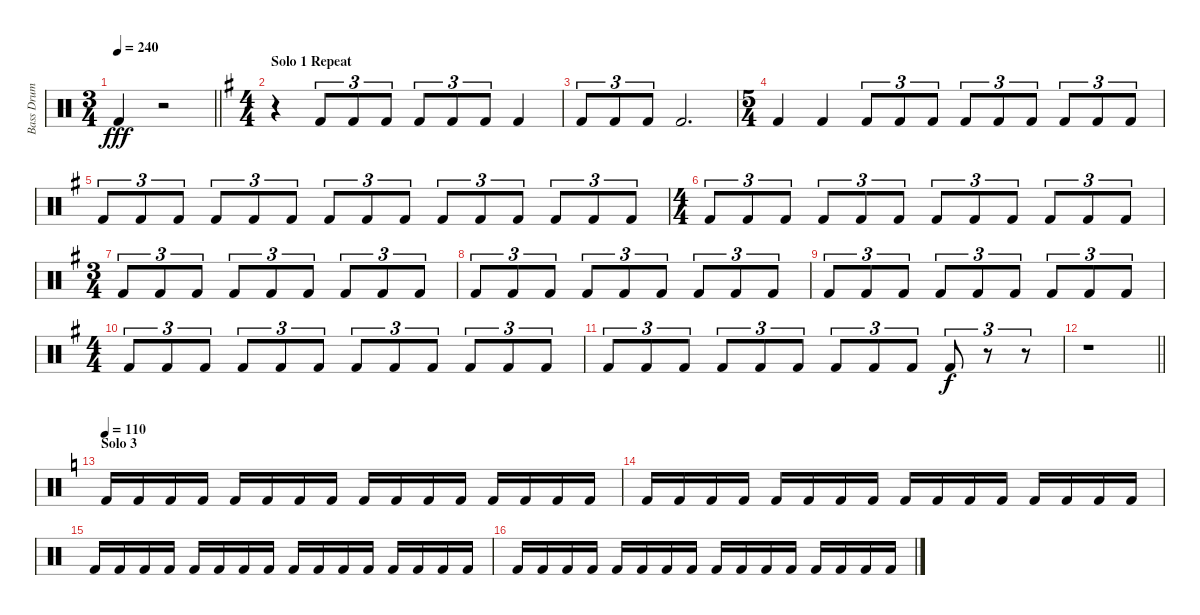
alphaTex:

\track ("Bass Drum" "Bass Drum") {instrument percussion}
\staff {score}
\articulation defaults
\ts (3 4)
\tempo 240
\clef neutral
\barLineRight lightlight
\ks c "Kick (hit) 2".4{dy fff}
r.2 |
\ts (4 4)
\section ("" "Solo 1 Repeat")
\ks g
r.4{volume 16} "Kick (hit) 2".8{tu (3 2)} "Kick (hit) 2".8{tu (3 2)} "Kick (hit) 2".8{tu (3 2)} "Kick (hit) 2".8{tu (3 2)} "Kick (hit) 2".8{tu (3 2)} "Kick (hit) 2".8{tu (3 2)} "Kick (hit) 2".4 |
"Kick (hit) 2".8{tu (3 2)} "Kick (hit) 2".8{tu (3 2)} "Kick (hit) 2".8{tu (3 2)} "Kick (hit) 2".2{d} |
\ts (5 4)
"Kick (hit) 2".4 "Kick (hit) 2".4 "Kick (hit) 2".8{tu (3 2)} "Kick (hit) 2".8{tu (3 2)} "Kick (hit) 2".8{tu (3 2)} "Kick (hit) 2".8{tu (3 2)} "Kick (hit) 2".8{tu (3 2)} "Kick (hit) 2".8{tu (3 2)} "Kick (hit) 2".8{tu (3 2)} "Kick (hit) 2".8{tu (3 2)} "Kick (hit) 2".8{tu (3 2)} |
"Kick (hit) 2".8{tu (3 2)} "Kick (hit) 2".8{tu (3 2)} "Kick (hit) 2".8{tu (3 2)} "Kick (hit) 2".8{tu (3 2)} "Kick (hit) 2".8{tu (3 2)} "Kick (hit) 2".8{tu (3 2)} "Kick (hit) 2".8{tu (3 2)} "Kick (hit) 2".8{tu (3 2)} "Kick (hit) 2".8{tu (3 2)} "Kick (hit) 2".8{tu (3 2)} "Kick (hit) 2".8{tu (3 2)} "Kick (hit) 2".8{tu (3 2)} "Kick (hit) 2".8{tu (3 2)} "Kick (hit) 2".8{tu (3 2)} "Kick (hit) 2".8{tu (3 2)} |
\ts (4 4)
"Kick (hit) 2".8{tu (3 2)} "Kick (hit) 2".8{tu (3 2)} "Kick (hit) 2".8{tu (3 2)} "Kick (hit) 2".8{tu (3 2)} "Kick (hit) 2".8{tu (3 2)} "Kick (hit) 2".8{tu (3 2)} "Kick (hit) 2".8{tu (3 2)} "Kick (hit) 2".8{tu (3 2)} "Kick (hit) 2".8{tu (3 2)} "Kick (hit) 2".8{tu (3 2)} "Kick (hit) 2".8{tu (3 2)} "Kick (hit) 2".8{tu (3 2)} |
\ts (3 4)
"Kick (hit) 2".8{tu (3 2)} "Kick (hit) 2".8{tu (3 2)} "Kick (hit) 2".8{tu (3 2)} "Kick (hit) 2".8{tu (3 2)} "Kick (hit) 2".8{tu (3 2)} "Kick (hit) 2".8{tu (3 2)} "Kick (hit) 2".8{tu (3 2)} "Kick (hit) 2".8{tu (3 2)} "Kick (hit) 2".8{tu (3 2)} |
"Kick (hit) 2".8{tu (3 2)} "Kick (hit) 2".8{tu (3 2)} "Kick (hit) 2".8{tu (3 2)} "Kick (hit) 2".8{tu (3 2)} "Kick (hit) 2".8{tu (3 2)} "Kick (hit) 2".8{tu (3 2)} "Kick (hit) 2".8{tu (3 2)} "Kick (hit) 2".8{tu (3 2)} "Kick (hit) 2".8{tu (3 2)} |
"Kick (hit) 2".8{tu (3 2)} "Kick (hit) 2".8{tu (3 2)} "Kick (hit) 2".8{tu (3 2)} "Kick (hit) 2".8{tu (3 2)} "Kick (hit) 2".8{tu (3 2)} "Kick (hit) 2".8{tu (3 2)} "Kick (hit) 2".8{tu (3 2)} "Kick (hit) 2".8{tu (3 2)} "Kick (hit) 2".8{tu (3 2)} |
\ts (4 4)
"Kick (hit) 2".8{tu (3 2)} "Kick (hit) 2".8{tu (3 2)} "Kick (hit) 2".8{tu (3 2)} "Kick (hit) 2".8{tu (3 2)} "Kick (hit) 2".8{tu (3 2)} "Kick (hit) 2".8{tu (3 2)} "Kick (hit) 2".8{tu (3 2)} "Kick (hit) 2".8{tu (3 2)} "Kick (hit) 2".8{tu (3 2)} "Kick (hit) 2".8{tu (3 2)} "Kick (hit) 2".8{tu (3 2)} "Kick (hit) 2".8{tu (3 2)} |
"Kick (hit) 2".8{tu (3 2)} "Kick (hit) 2".8{tu (3 2)} "Kick (hit) 2".8{tu (3 2)} "Kick (hit) 2".8{tu (3 2)} "Kick (hit) 2".8{tu (3 2)} "Kick (hit) 2".8{tu (3 2)} "Kick (hit) 2".8{tu (3 2)} "Kick (hit) 2".8{tu (3 2)} "Kick (hit) 2".8{tu (3 2)} "Kick (hit) 2".8{tu (3 2) dy f} r.8{tu (3 2)} r.8{tu (3 2)} |
\barLineRight lightlight
r.1 |
\section ("" "Solo 3")
\tempo 110
\ks c "Kick (hit) 2".16{volume 16} "Kick (hit) 2".16 "Kick (hit) 2".16 "Kick (hit) 2".16 "Kick (hit) 2".16 "Kick (hit) 2".16 "Kick (hit) 2".16 "Kick (hit) 2".16 "Kick (hit) 2".16 "Kick (hit) 2".16 "Kick (hit) 2".16 "Kick (hit) 2".16 "Kick (hit) 2".16 "Kick (hit) 2".16 "Kick (hit) 2".16 "Kick (hit) 2".16
|
"Kick (hit) 2".16 "Kick (hit) 2".16 "Kick (hit) 2".16 "Kick (hit) 2".16 "Kick (hit) 2".16 "Kick (hit) 2".16 "Kick (hit) 2".16 "Kick (hit) 2".16 "Kick (hit) 2".16 "Kick (hit) 2".16 "Kick (hit) 2".16 "Kick (hit) 2".16 "Kick (hit) 2".16 "Kick (hit) 2".16 "Kick (hit) 2".16 "Kick (hit) 2".16 |
"Kick (hit) 2".16 "Kick (hit) 2".16 "Kick (hit) 2".16 "Kick (hit) 2".16 "Kick (hit) 2".16 "Kick (hit) 2".16 "Kick (hit) 2".16 "Kick (hit) 2".16 "Kick (hit) 2".16 "Kick (hit) 2".16 "Kick (hit) 2".16 "Kick (hit) 2".16 "Kick (hit) 2".16 "Kick (hit) 2".16 "Kick (hit) 2".16 "Kick (hit) 2".16 |
"Kick (hit) 2".16 "Kick (hit) 2".16 "Kick (hit) 2".16 "Kick (hit) 2".16 "Kick (hit) 2".16 "Kick (hit) 2".16 "Kick (hit) 2".16 "Kick (hit) 2".16 "Kick (hit) 2".16 "Kick (hit) 2".16 "Kick (hit) 2".16 "Kick (hit) 2".16 "Kick (hit) 2".16 "Kick (hit) 2".16 "Kick (hit) 2".16 "Kick (hit) 2".16
